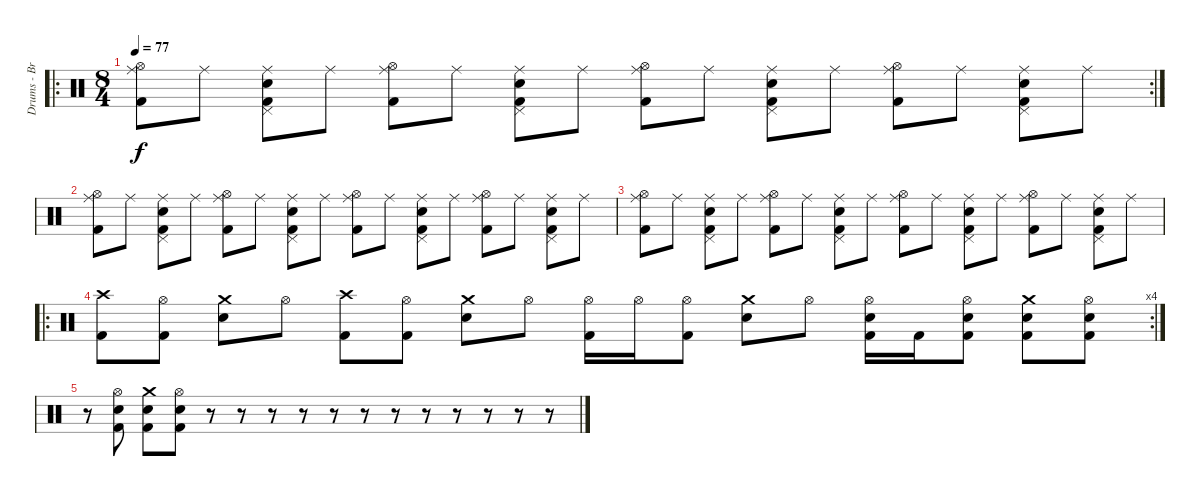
\track ("Drums - Brad Wilk" "Drums - Br") {instrument percussion}
\staff {score}
\articulation defaults
\ro
\rc 2
\ts (8 4)
\tempo 77
\clef neutral
\ks c
("Hi-Hat (open)" "Ride (middle)" "Kick (hit) 2").8{dy f} "Ride (middle)".8 ("Pedal Hi-Hat (hit)" "Ride (middle)" "Electric Snare (hit)" "Kick (hit) 2").8 "Ride (middle)".8 ("Hi-Hat (open)" "Ride (middle)" "Kick (hit) 2").8 "Ride (middle)".8 ("Pedal Hi-Hat (hit)" "Ride (middle)" "Electric Snare (hit)" "Kick (hit) 2").8 "Ride (middle)".8 ("Hi-Hat (open)" "Ride (middle)" "Kick (hit) 2").8 "Ride (middle)".8 ("Pedal Hi-Hat (hit)" "Ride (middle)" "Electric Snare (hit)" "Kick (hit) 2").8 "Ride (middle)".8 ("Hi-Hat (open)" "Ride (middle)" "Kick (hit) 2").8 "Ride (middle)".8 ("Pedal Hi-Hat (hit)" "Ride (middle)" "Electric Snare (hit)" "Kick (hit) 2").8 "Ride (middle)".8 |
("Hi-Hat (open)" "Ride (middle)" "Kick (hit) 2").8 "Ride (middle)".8 ("Pedal Hi-Hat (hit)" "Ride (middle)" "Electric Snare (hit)" "Kick (hit) 2").8 "Ride (middle)".8 ("Hi-Hat (open)" "Ride (middle)" "Kick (hit) 2").8 "Ride (middle)".8 ("Pedal Hi-Hat (hit)" "Ride (middle)" "Electric Snare (hit)" "Kick (hit) 2").8 "Ride (middle)".8 ("Hi-Hat (open)" "Ride (middle)" "Kick (hit) 2").8 "Ride (middle)".8 ("Pedal Hi-Hat (hit)" "Ride (middle)" "Electric Snare (hit)" "Kick (hit) 2").8 "Ride (middle)".8 ("Hi-Hat (open)" "Ride (middle)" "Kick (hit) 2").8 "Ride (middle)".8 ("Pedal Hi-Hat (hit)" "Ride (middle)" "Electric Snare (hit)" "Kick (hit) 2").8 "Ride (middle)".8 |
("Hi-Hat (open)" "Ride (middle)" "Kick (hit) 2").8 "Ride (middle)".8 ("Pedal Hi-Hat (hit)" "Ride (middle)" "Electric Snare (hit)" "Kick (hit) 2").8 "Ride (middle)".8 ("Hi-Hat (open)" "Ride (middle)" "Kick (hit) 2").8 "Ride (middle)".8 ("Pedal Hi-Hat (hit)" "Ride (middle)" "Electric Snare (hit)" "Kick (hit) 2").8 "Ride (middle)".8 ("Hi-Hat (open)" "Ride (middle)" "Kick (hit) 2").8 "Ride (middle)".8 ("Pedal Hi-Hat (hit)" "Ride (middle)" "Electric Snare (hit)" "Kick (hit) 2").8 "Ride (middle)".8 ("Hi-Hat (open)" "Ride (middle)" "Kick (hit) 2").8 "Ride (middle)".8 ("Pedal Hi-Hat (hit)" "Ride (middle)" "Electric Snare (hit)" "Kick (hit) 2").8 "Ride (middle)".8 |
\ro
\rc 4
("Crash high (hit)" "Kick (hit) 2").8 ("Hi-Hat (open)" "Kick (hit) 2").8 ("Crash medium (hit)" "Snare (hit) 2").8 "Hi-Hat (open)".8 ("Crash high (hit)" "Kick (hit) 2").8 ("Hi-Hat (open)" "Kick (hit) 2").8 ("Crash medium (hit)" "Snare (hit) 2").8 "Hi-Hat (open)".8 ("Hi-Hat (open)" "Kick (hit) 2").16 "Hi-Hat (open)".16 ("Hi-Hat (open)" "Kick (hit) 2").8 ("Crash medium (hit)" "Snare (hit) 2").8 "Hi-Hat (open)".8 ("Hi-Hat (open)" "Snare (hit) 2" "Kick (hit) 2").16 "Kick (hit) 2".16 ("Hi-Hat (open)" "Snare (hit) 2" "Kick (hit) 2").8 ("Crash medium (hit)" "Snare (hit) 2" "Kick (hit) 2").8 ("Hi-Hat (open)" "Snare (hit) 2" "Kick (hit) 2").8 |
r.8 ("Hi-Hat (open)" "Snare (hit) 2" "Kick (hit) 2").8 ("Crash medium (hit)" "Snare (hit) 2" "Kick (hit) 2").8 ("Hi-Hat (open)" "Snare (hit) 2" "Kick (hit) 2").8 r.8 r.8 r.8 r.8 r.8 r.8 r.8 r.8 r.8 r.8 r.8 r.8
